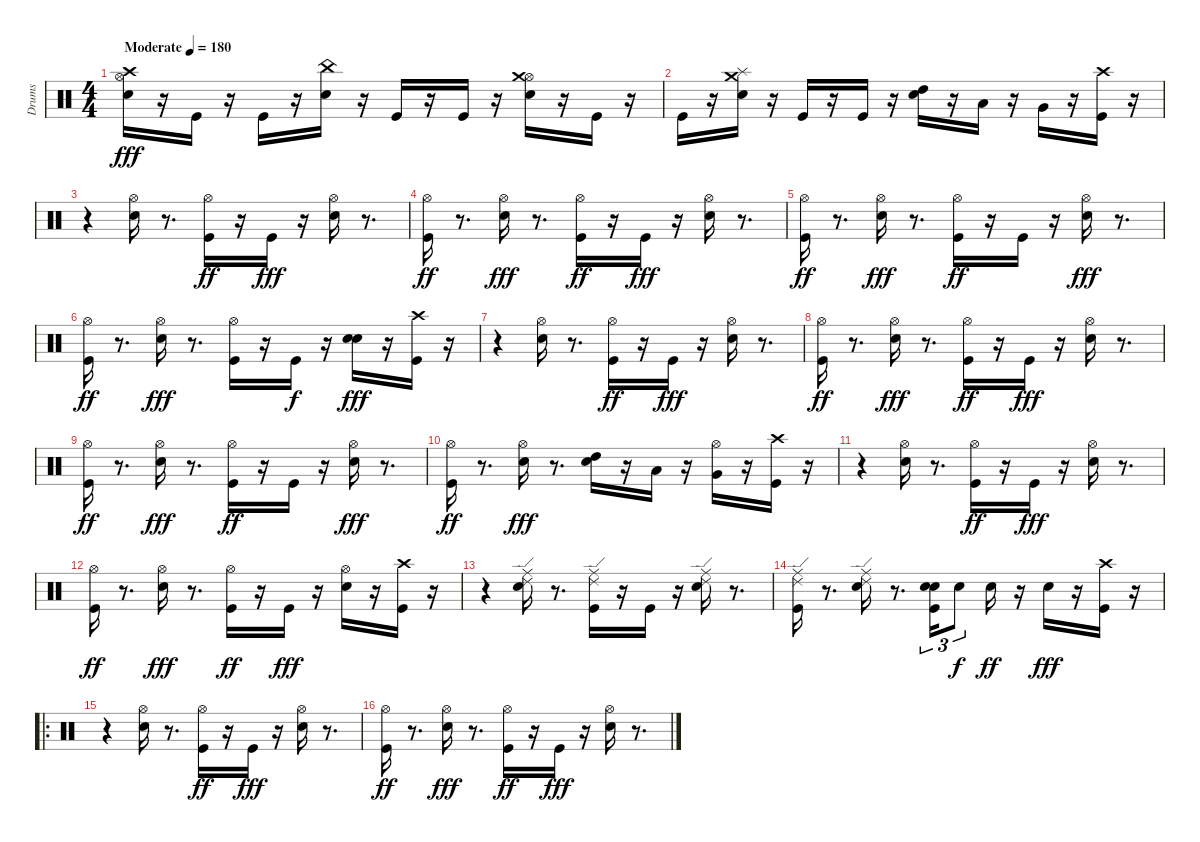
\track ("Drums" "Drums") {instrument percussion}
\staff {score}
\articulation defaults
\ts (4 4)
\tempo (180 "Moderate")
\clef neutral
\ks c
("Hi-Hat (open)" "Electric Snare (hit)" "Crash high (hit)").16{dy fff} r.16 "Kick (hit)".16 r.16 "Kick (hit)".16 r.16 ("China (hit)" "Electric Snare (hit)").16 r.16 "Kick (hit)".16 r.16 "Kick (hit)".16 r.16 ("Hi-Hat (open)" "Crash medium (hit)" "Electric Snare (hit)").16 r.16 "Kick (hit)".16 r.16 |
"Kick (hit)".16 r.16 ("Crash medium (hit)" "Splash (hit)" "Electric Snare (hit)").16 r.16 "Kick (hit)".16 r.16 "Kick (hit)".16 r.16 ("Electric Snare (hit)" "High Tom (hit)").16 r.16 "Low Tom (hit)".16 r.16 "Very Low Tom (hit)".16 r.16 ("Kick (hit)" "Crash high (hit)").16 r.16 |
r.4 ("Electric Snare (hit)" "Hi-Hat (open)").16 r.8{d} ("Kick (hit)" "Hi-Hat (open)").16{dy ff} r.16 "Kick (hit)".16{dy fff} r.16 ("Hi-Hat (open)" "Electric Snare (hit)").16 r.8{d} |
("Kick (hit)" "Hi-Hat (open)").16{dy ff} r.8{d} ("Electric Snare (hit)" "Hi-Hat (open)").16{dy fff} r.8{d} ("Kick (hit)" "Hi-Hat (open)").16{dy ff} r.16 "Kick (hit)".16{dy fff} r.16 ("Electric Snare (hit)" "Hi-Hat (open)").16 r.8{d} |
("Kick (hit)" "Hi-Hat (open)").16{dy ff} r.8{d} ("Electric Snare (hit)" "Hi-Hat (open)").16{dy fff} r.8{d} ("Kick (hit)" "Hi-Hat (open)").16{dy ff} r.16 "Kick (hit)".16 r.16 ("Electric Snare (hit)" "Hi-Hat (open)").16{dy fff} r.8{d} |
("Kick (hit)" "Hi-Hat (open)").16{dy ff} r.8{d} ("Electric Snare (hit)" "Hi-Hat (open)").16{dy fff} r.8{d} ("Hi-Hat (open)" "Kick (hit)").16 r.16 "Kick (hit)".16{dy f} r.16 ("Snare (hit) 2" "Electric Snare (hit)").16{dy fff} r.16 ("Crash high (hit)" "Kick (hit)").16 r.16 |
r.4 ("Electric Snare (hit)" "Hi-Hat (open)").16 r.8{d} ("Kick (hit)" "Hi-Hat (open)").16{dy ff} r.16 "Kick (hit)".16{dy fff} r.16 ("Hi-Hat (open)" "Electric Snare (hit)").16 r.8{d} |
("Kick (hit)" "Hi-Hat (open)").16{dy ff} r.8{d} ("Electric Snare (hit)" "Hi-Hat (open)").16{dy fff} r.8{d} ("Kick (hit)" "Hi-Hat (open)").16{dy ff} r.16 "Kick (hit)".16{dy fff} r.16 ("Electric Snare (hit)" "Hi-Hat (open)").16 r.8{d} |
("Kick (hit)" "Hi-Hat (open)").16{dy ff} r.8{d} ("Electric Snare (hit)" "Hi-Hat (open)").16{dy fff} r.8{d} ("Kick (hit)" "Hi-Hat (open)").16{dy ff} r.16 "Kick (hit)".16 r.16 ("Electric Snare (hit)" "Hi-Hat (open)").16{dy fff} r.8{d} |
("Kick (hit)" "Hi-Hat (open)").16{dy ff} r.8{d} ("Electric Snare (hit)" "Hi-Hat (open)").16{dy fff} r.8{d} ("Electric Snare (hit)" "High Tom (hit)").16 r.16 "Low Tom (hit)".16 r.16 ("Hi-Hat (open)" "Very Low Tom (hit)").16 r.16 ("Kick (hit)" "Crash high (hit)").16 r.16 |
r.4 ("Electric Snare (hit)" "Hi-Hat (open)").16 r.8{d} ("Kick (hit)" "Hi-Hat (open)").16{dy ff} r.16 "Kick (hit)".16{dy fff} r.16 ("Hi-Hat (open)" "Electric Snare (hit)").16 r.8{d} |
("Kick (hit)" "Hi-Hat (open)").16{dy ff} r.8{d} ("Electric Snare (hit)" "Hi-Hat (open)").16{dy fff} r.8{d} ("Kick (hit)" "Hi-Hat (open)").16{dy ff} r.16 "Kick (hit)".16{dy fff} r.16 ("Hi-Hat (open)" "Electric Snare (hit)").16 r.16 ("Kick (hit)" "Crash high (hit)").16 r.16 |
r.4 ("Ride (edge) 2" "Ride (middle)" "Electric Snare (hit)").16 r.8{d} ("Ride (middle)" "Ride (edge) 2" "Kick (hit)").16 r.16 "Kick (hit)".16 r.16 ("Ride (edge) 2" "Ride (middle)" "Electric Snare (hit)").16 r.8{d} |
("Ride (middle)" "Ride (edge) 2" "Kick (hit)").16 r.8{d} ("Ride (middle)" "Ride (edge) 2" "Electric Snare (hit)").16 r.8{d} ("Snare (hit) 2" "Kick (hit)" "Electric Snare (hit)").16{tu (3 2)} "Electric Snare (hit)".8{tu (3 2) dy f} "Electric Snare (hit)".16{dy ff} r.16 "Electric Snare (hit)".16{dy fff} r.16 ("Crash high (hit)" "Kick (hit)").16 r.16 |
\ro
r.4 ("Electric Snare (hit)" "Hi-Hat (open)").16 r.8{d} ("Kick (hit)" "Hi-Hat (open)").16{dy ff} r.16 "Kick (hit)".16{dy fff} r.16 ("Hi-Hat (open)" "Electric Snare (hit)").16 r.8{d} |
("Kick (hit)" "Hi-Hat (open)").16{dy ff} r.8{d} ("Electric Snare (hit)" "Hi-Hat (open)").16{dy fff} r.8{d} ("Kick (hit)" "Hi-Hat (open)").16{dy ff} r.16 "Kick (hit)".16{dy fff} r.16 ("Electric Snare (hit)" "Hi-Hat (open)").16 r.8{d}
